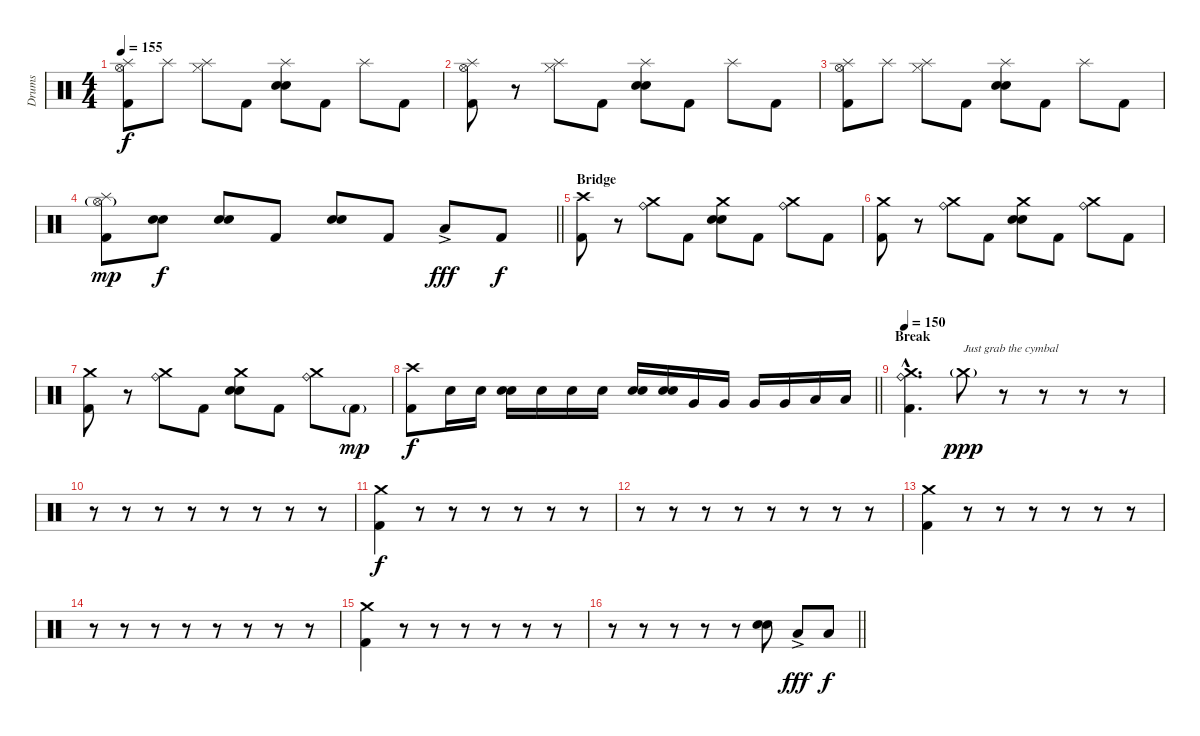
\track ("Drums" "Drums") {instrument percussion}
\staff {score}
\articulation defaults
\ts (4 4)
\tempo 155
\clef neutral
\ks c
("Splash (hit)" "Hi-Hat (open)" "Kick (hit) 2").8{dy f} "Splash (hit)".8 ("Splash (hit)" "Hi-Hat (closed)").8 "Kick (hit) 2".8 ("Splash (hit)" "Snare (hit) 2" "Electric Snare (hit)").8 "Kick (hit) 2".8 "Splash (hit)".8 "Kick (hit) 2".8 |
("Splash (hit)" "Hi-Hat (open)" "Kick (hit) 2").8 r.8 ("Splash (hit)" "Hi-Hat (closed)").8 "Kick (hit) 2".8 ("Splash (hit)" "Snare (hit) 2" "Electric Snare (hit)").8 "Kick (hit) 2".8 "Splash (hit)".8 "Kick (hit) 2".8 |
("Splash (hit)" "Hi-Hat (open)" "Kick (hit) 2").8 "Splash (hit)".8 ("Splash (hit)" "Hi-Hat (closed)").8 "Kick (hit) 2".8 ("Splash (hit)" "Snare (hit) 2" "Electric Snare (hit)").8 "Kick (hit) 2".8 "Splash (hit)".8 "Kick (hit) 2".8 |
\barLineRight lightlight
("Splash (hit)" "Hi-Hat (open)"{g} "Kick (hit) 2").8{dy mp} ("Snare (hit) 2" "Electric Snare (hit)").8{dy f} ("Snare (hit) 2" "Electric Snare (hit)").8 "Kick (hit) 2".8 ("Snare (hit) 2" "Electric Snare (hit)").8 "Kick (hit) 2".8 "Low Floor Tom (hit)"{ac}.8{dy fff} "Kick (hit) 2".8{dy f} |
\section ("" "Bridge")
("Crash high (hit)" "Kick (hit) 2").8 r.8 ("Crash medium (hit)" "Ride (bell)").8 "Kick (hit) 2".8 ("Crash medium (hit)" "Snare (hit) 2" "Electric Snare (hit)").8 "Kick (hit) 2".8 ("Crash medium (hit)" "Ride (bell)").8 "Kick (hit) 2".8 |
("Crash medium (hit)" "Kick (hit) 2").8 r.8 ("Crash medium (hit)" "Ride (bell)").8 "Kick (hit) 2".8 ("Crash medium (hit)" "Snare (hit) 2" "Electric Snare (hit)").8 "Kick (hit) 2".8 ("Crash medium (hit)" "Ride (bell)").8 "Kick (hit) 2".8 |
("Crash medium (hit)" "Kick (hit) 2").8 r.8 ("Crash medium (hit)" "Ride (bell)").8 "Kick (hit) 2".8 ("Crash medium (hit)" "Snare (hit) 2" "Electric Snare (hit)").8 "Kick (hit) 2".8 ("Crash medium (hit)" "Ride (bell)").8 "Kick (hit) 2"{g}.8{dy mp} |
\barLineRight lightlight
("Crash high (hit)" "Kick (hit) 2").8{dy f} "Snare (hit) 2".16 "Snare (hit) 2".16 ("Electric Snare (hit)" "Snare (hit) 2").16 "Snare (hit) 2".16 "Snare (hit) 2".16 "Snare (hit) 2".16 ("Electric Snare (hit)" "Snare (hit) 2").16 ("Electric Snare (hit)" "Snare (hit) 2").16 "Very Low Tom (hit)".16 "Very Low Tom (hit)".16 "Very Low Tom (hit)".16 "Very Low Tom (hit)".16 "Low Floor Tom (hit)".16 "Low Floor Tom (hit)".16 |
\section ("" "Break")
\tempo 150
("Crash medium (hit)"{hac} "Ride (bell)"{hac} "Kick (hit) 2"{hac}).4{d} "Crash medium (hit)"{g}.8{txt "Just grab the cymbal" dy ppp} r.8 r.8 r.8 r.8 |
r.8 r.8 r.8 r.8 r.8 r.8 r.8 r.8 |
("Crash medium (hit)" "Kick (hit) 2").4{dy f} r.8 r.8 r.8 r.8 r.8 r.8 |
r.8 r.8 r.8 r.8 r.8 r.8 r.8 r.8 |
("Crash medium (hit)" "Kick (hit) 2").4 r.8 r.8 r.8 r.8 r.8 r.8 |
r.8 r.8 r.8 r.8 r.8 r.8 r.8 r.8 |
("Crash medium (hit)" "Kick (hit) 2").4 r.8 r.8 r.8 r.8 r.8 r.8 |
\barLineRight lightlight
r.8 r.8 r.8 r.8 r.8 ("Snare (hit) 2" "Electric Snare (hit)").8 "Low Floor Tom (hit)"{ac}.8{dy fff} "Low Floor Tom (hit)".8{dy f}
